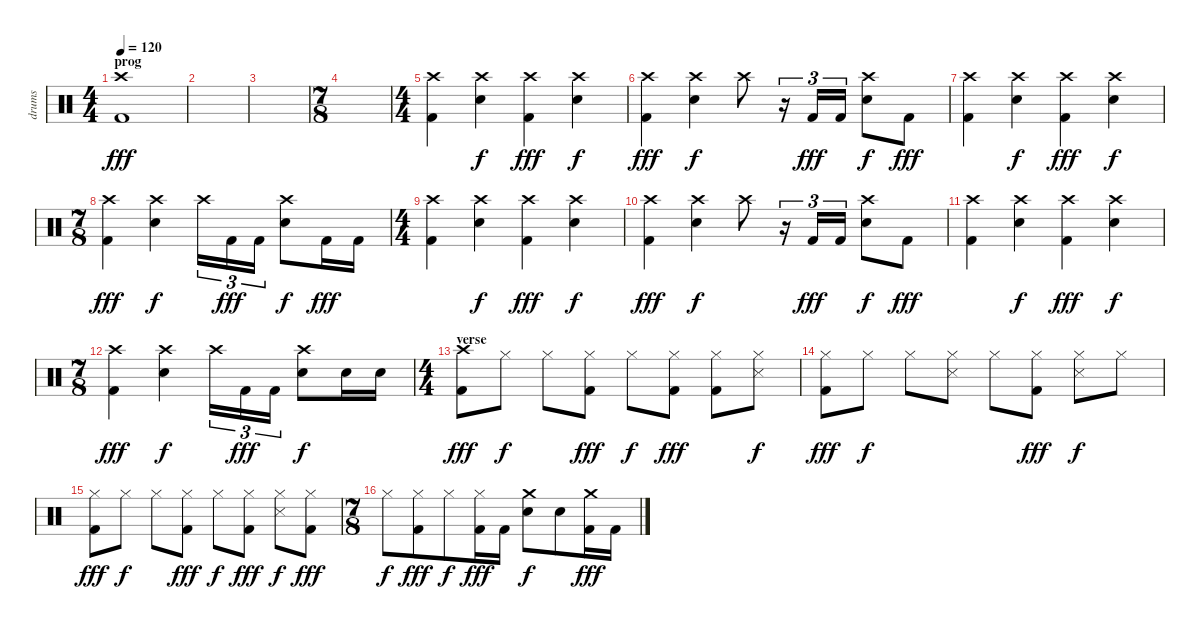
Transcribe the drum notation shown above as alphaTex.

\track ("drums" "drums") {instrument percussion}
\staff {score}
\articulation defaults
\ts (4 4)
\section ("" "prog")
\tempo 120
\clef neutral
\ks c
("Crash high (hit)" "Kick (hit) 2").1{dy fff} |
|
|
\ts (7 8)
|
\ts (4 4)
("Crash high (hit)" "Kick (hit) 2").4 ("Crash high (hit)" "Snare (hit) 2").4{dy f} ("Crash high (hit)" "Kick (hit) 2").4{dy fff} ("Crash high (hit)" "Snare (hit) 2").4{dy f} |
("Crash high (hit)" "Kick (hit) 2").4{dy fff} ("Crash high (hit)" "Snare (hit) 2").4{dy f} "Crash high (hit)".8 r.16{tu (3 2)} "Kick (hit) 2".16{tu (3 2) dy fff} "Kick (hit) 2".16{tu (3 2)} ("Crash high (hit)" "Snare (hit) 2").8{dy f} "Kick (hit) 2".8{dy fff} |
("Crash high (hit)" "Kick (hit) 2").4 ("Crash high (hit)" "Snare (hit) 2").4{dy f} ("Crash high (hit)" "Kick (hit) 2").4{dy fff} ("Crash high (hit)" "Snare (hit) 2").4{dy f} |
\ts (7 8)
("Crash high (hit)" "Kick (hit) 2").4{dy fff} ("Crash high (hit)" "Snare (hit) 2").4{dy f} "Crash high (hit)".16{tu (3 2)} "Kick (hit) 2".16{tu (3 2) dy fff} "Kick (hit) 2".16{tu (3 2)} ("Crash high (hit)" "Snare (hit) 2").8{dy f} "Kick (hit) 2".16{dy fff} "Kick (hit) 2".16 |
\ts (4 4)
("Crash high (hit)" "Kick (hit) 2").4 ("Crash high (hit)" "Snare (hit) 2").4{dy f} ("Crash high (hit)" "Kick (hit) 2").4{dy fff} ("Crash high (hit)" "Snare (hit) 2").4{dy f} |
("Crash high (hit)" "Kick (hit) 2").4{dy fff} ("Crash high (hit)" "Snare (hit) 2").4{dy f} "Crash high (hit)".8 r.16{tu (3 2)} "Kick (hit) 2".16{tu (3 2) dy fff} "Kick (hit) 2".16{tu (3 2)} ("Crash high (hit)" "Snare (hit) 2").8{dy f} "Kick (hit) 2".8{dy fff} |
("Crash high (hit)" "Kick (hit) 2").4 ("Crash high (hit)" "Snare (hit) 2").4{dy f} ("Crash high (hit)" "Kick (hit) 2").4{dy fff} ("Crash high (hit)" "Snare (hit) 2").4{dy f} |
\ts (7 8)
("Crash high (hit)" "Kick (hit) 2").4{dy fff} ("Crash high (hit)" "Snare (hit) 2").4{dy f} "Crash high (hit)".16{tu (3 2)} "Kick (hit) 2".16{tu (3 2) dy fff} "Kick (hit) 2".16{tu (3 2)} ("Crash high (hit)" "Snare (hit) 2").8{dy f} "Snare (hit) 2".16 "Snare (hit) 2".16 |
\ts (4 4)
\section ("" "verse")
("Crash high (hit)" "Kick (hit) 2").8{dy fff} "Hi-Hat (closed)".8{dy f} "Hi-Hat (closed)".8 ("Hi-Hat (closed)" "Kick (hit) 2").8{dy fff} "Hi-Hat (closed)".8{dy f} ("Hi-Hat (closed)" "Kick (hit) 2").8{dy fff} ("Hi-Hat (closed)" "Kick (hit) 2").8 ("Hi-Hat (closed)" "Snare (side stick) 3").8{dy f} |
("Hi-Hat (closed)" "Kick (hit) 2").8{dy fff} "Hi-Hat (closed)".8{dy f} "Hi-Hat (closed)".8 ("Hi-Hat (closed)" "Snare (side stick) 3").8 "Hi-Hat (closed)".8 ("Hi-Hat (closed)" "Kick (hit) 2").8{dy fff} ("Hi-Hat (closed)" "Snare (side stick) 3").8{dy f} "Hi-Hat (closed)".8 |
("Hi-Hat (closed)" "Kick (hit) 2").8{dy fff} "Hi-Hat (closed)".8{dy f} "Hi-Hat (closed)".8 ("Hi-Hat (closed)" "Kick (hit) 2").8{dy fff} "Hi-Hat (closed)".8{dy f} ("Hi-Hat (closed)" "Kick (hit) 2").8{dy fff} ("Hi-Hat (closed)" "Snare (side stick) 3").8{dy f} ("Hi-Hat (closed)" "Kick (hit) 2").8{dy fff} |
\ts (7 8)
"Hi-Hat (closed)".8{dy f} ("Hi-Hat (closed)" "Kick (hit) 2").8{dy fff} "Hi-Hat (closed)".8{dy f} ("Hi-Hat (closed)" "Kick (hit) 2").16{dy fff} "Kick (hit) 2".16 ("Crash medium (hit)" "Snare (hit) 2").8{dy f} "Snare (hit) 2".8 ("Crash medium (hit)" "Kick (hit) 2").16{dy fff} "Kick (hit) 2".16
